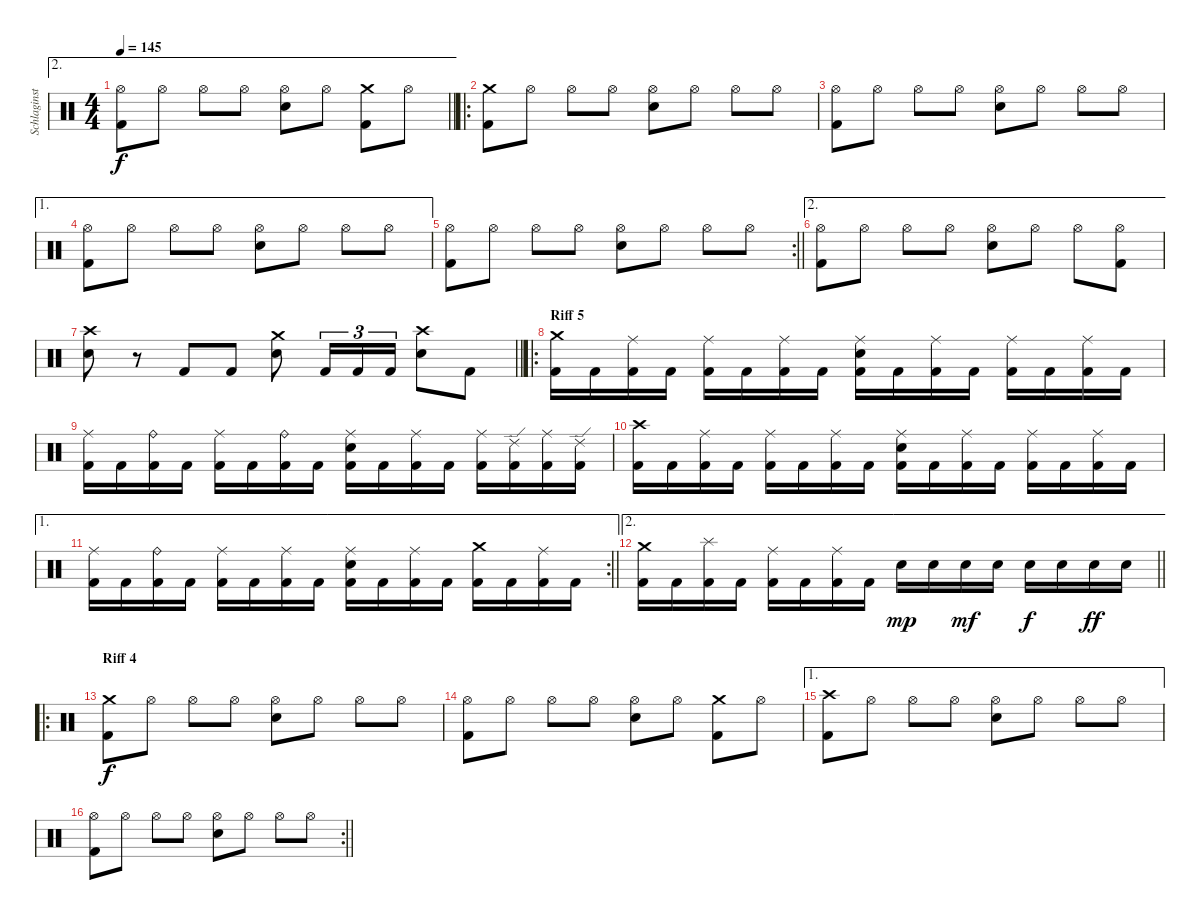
\track ("Schlaginstrumente - Auswahl" "Schlaginst") {instrument percussion}
\staff {score}
\articulation defaults
\ae 2
\ts (4 4)
\tempo 145
\clef neutral
\barLineRight lightlight
\ks c
("Hi-Hat (open)" "Kick (hit) 2").8{dy f} "Hi-Hat (open)".8 "Hi-Hat (open)".8 "Hi-Hat (open)".8 ("Hi-Hat (open)" "Electric Snare (hit)").8 "Hi-Hat (open)".8 ("Crash medium (hit)" "Kick (hit) 2").8 "Hi-Hat (open)".8 |
\ro
("Crash medium (hit)" "Kick (hit) 2").8 "Hi-Hat (open)".8 "Hi-Hat (open)".8 "Hi-Hat (open)".8 ("Hi-Hat (open)" "Electric Snare (hit)").8 "Hi-Hat (open)".8 "Hi-Hat (open)".8 "Hi-Hat (open)".8 |
("Hi-Hat (open)" "Kick (hit) 2").8 "Hi-Hat (open)".8 "Hi-Hat (open)".8 "Hi-Hat (open)".8 ("Hi-Hat (open)" "Electric Snare (hit)").8 "Hi-Hat (open)".8 "Hi-Hat (open)".8 "Hi-Hat (open)".8 |
\ae 1
("Hi-Hat (open)" "Kick (hit) 2").8 "Hi-Hat (open)".8 "Hi-Hat (open)".8 "Hi-Hat (open)".8 ("Hi-Hat (open)" "Electric Snare (hit)").8 "Hi-Hat (open)".8 "Hi-Hat (open)".8 "Hi-Hat (open)".8 |
\rc 2
\barLineRight lightlight
("Hi-Hat (open)" "Kick (hit) 2").8 "Hi-Hat (open)".8 "Hi-Hat (open)".8 "Hi-Hat (open)".8 ("Hi-Hat (open)" "Electric Snare (hit)").8 "Hi-Hat (open)".8 "Hi-Hat (open)".8 "Hi-Hat (open)".8 |
\ae 2
("Hi-Hat (open)" "Kick (hit) 2").8 "Hi-Hat (open)".8 "Hi-Hat (open)".8 "Hi-Hat (open)".8 ("Hi-Hat (open)" "Electric Snare (hit)").8 "Hi-Hat (open)".8 "Hi-Hat (open)".8 ("Hi-Hat (open)" "Kick (hit) 2").8 |
\barLineRight lightlight
("Crash high (hit)" "Electric Snare (hit)").8 r.8 "Kick (hit) 2".8 "Kick (hit) 2".8 ("Crash medium (hit)" "Electric Snare (hit)").8 "Kick (hit) 2".16{tu (3 2)} "Kick (hit) 2".16{tu (3 2)} "Kick (hit) 2".16{tu (3 2)} ("Crash high (hit)" "Electric Snare (hit)").8 "Kick (hit) 2".8 |
\ro
\section ("" "Riff 5")
("Crash medium (hit)" "Kick (hit) 2").16 "Kick (hit) 2".16 ("Ride (middle)" "Kick (hit) 2").16 "Kick (hit) 2".16 ("Ride (middle)" "Kick (hit) 2").16 "Kick (hit) 2".16 ("Ride (middle)" "Kick (hit) 2").16 "Kick (hit) 2".16 ("Ride (middle)" "Electric Snare (hit)" "Kick (hit) 2").16 "Kick (hit) 2".16 ("Ride (middle)" "Kick (hit) 2").16 "Kick (hit) 2".16 ("Ride (middle)" "Kick (hit) 2").16 "Kick (hit) 2".16 ("Ride (middle)" "Kick (hit) 2").16 "Kick (hit) 2".16 |
("Ride (middle)" "Kick (hit) 2").16 "Kick (hit) 2".16 ("Ride (bell)" "Kick (hit) 2").16 "Kick (hit) 2".16 ("Ride (middle)" "Kick (hit) 2").16 "Kick (hit) 2".16 ("Ride (bell)" "Kick (hit) 2").16 "Kick (hit) 2".16 ("Ride (middle)" "Electric Snare (hit)" "Kick (hit) 2").16 "Kick (hit) 2".16 ("Ride (middle)" "Kick (hit) 2").16 "Kick (hit) 2".16 ("Ride (middle)" "Kick (hit) 2").16 ("Ride (edge) 2" "Kick (hit) 2").16 ("Ride (middle)" "Kick (hit) 2").16 ("Ride (edge) 2" "Kick (hit) 2").16 |
("Crash high (hit)" "Kick (hit) 2").16 "Kick (hit) 2".16 ("Ride (middle)" "Kick (hit) 2").16 "Kick (hit) 2".16 ("Ride (middle)" "Kick (hit) 2").16 "Kick (hit) 2".16 ("Ride (middle)" "Kick (hit) 2").16 "Kick (hit) 2".16 ("Ride (middle)" "Electric Snare (hit)" "Kick (hit) 2").16 "Kick (hit) 2".16 ("Ride (middle)" "Kick (hit) 2").16 "Kick (hit) 2".16 ("Ride (middle)" "Kick (hit) 2").16 "Kick (hit) 2".16 ("Ride (middle)" "Kick (hit) 2").16 "Kick (hit) 2".16 |
\ae 1
\rc 2
\barLineRight lightlight
("Ride (middle)" "Kick (hit) 2").16 "Kick (hit) 2".16 ("Ride (bell)" "Kick (hit) 2").16 "Kick (hit) 2".16 ("Ride (middle)" "Kick (hit) 2").16 "Kick (hit) 2".16 ("Ride (middle)" "Kick (hit) 2").16 "Kick (hit) 2".16 ("Ride (middle)" "Electric Snare (hit)" "Kick (hit) 2").16 "Kick (hit) 2".16 ("Ride (middle)" "Kick (hit) 2").16 "Kick (hit) 2".16 ("Crash medium (hit)" "Kick (hit) 2").16 "Kick (hit) 2".16 ("Ride (middle)" "Kick (hit) 2").16 "Kick (hit) 2".16 |
\ae 2
\barLineRight lightlight
("Crash medium (hit)" "Kick (hit) 2").16 "Kick (hit) 2".16 ("Splash (hit)" "Kick (hit) 2").16 "Kick (hit) 2".16 ("Ride (middle)" "Kick (hit) 2").16 "Kick (hit) 2".16 ("Ride (middle)" "Kick (hit) 2").16 "Kick (hit) 2".16 "Electric Snare (hit)".16{dy mp} "Electric Snare (hit)".16 "Electric Snare (hit)".16{dy mf} "Electric Snare (hit)".16 "Electric Snare (hit)".16{dy f} "Electric Snare (hit)".16 "Electric Snare (hit)".16{dy ff} "Electric Snare (hit)".16 |
\ro
\section ("" "Riff 4")
("Crash medium (hit)" "Kick (hit) 2").8{dy f} "Hi-Hat (open)".8 "Hi-Hat (open)".8 "Hi-Hat (open)".8 ("Hi-Hat (open)" "Electric Snare (hit)").8 "Hi-Hat (open)".8 "Hi-Hat (open)".8 "Hi-Hat (open)".8 |
("Hi-Hat (open)" "Kick (hit) 2").8 "Hi-Hat (open)".8 "Hi-Hat (open)".8 "Hi-Hat (open)".8 ("Hi-Hat (open)" "Electric Snare (hit)").8 "Hi-Hat (open)".8 ("Crash medium (hit)" "Kick (hit) 2").8 "Hi-Hat (open)".8 |
\ae 1
("Crash high (hit)" "Kick (hit) 2").8 "Hi-Hat (open)".8 "Hi-Hat (open)".8 "Hi-Hat (open)".8 ("Hi-Hat (open)" "Electric Snare (hit)").8 "Hi-Hat (open)".8 "Hi-Hat (open)".8 "Hi-Hat (open)".8 |
\rc 2
\barLineRight lightlight
("Hi-Hat (open)" "Kick (hit) 2").8 "Hi-Hat (open)".8 "Hi-Hat (open)".8 "Hi-Hat (open)".8 ("Hi-Hat (open)" "Electric Snare (hit)").8 "Hi-Hat (open)".8 "Hi-Hat (open)".8 "Hi-Hat (open)".8
